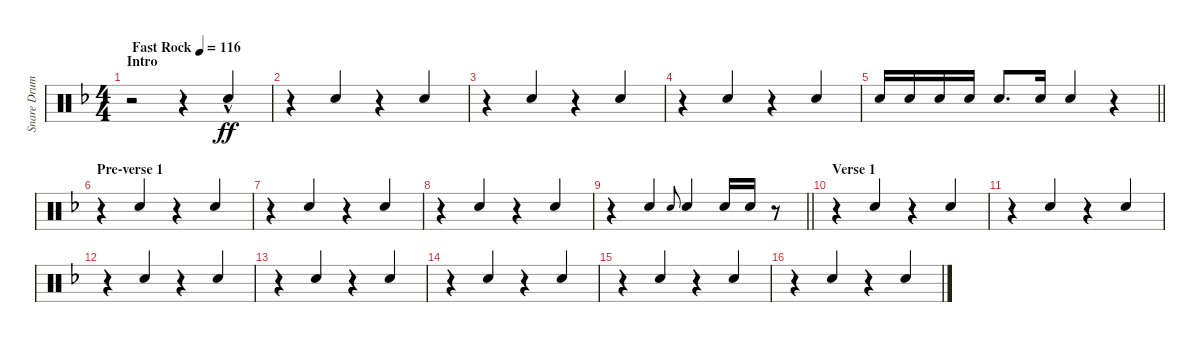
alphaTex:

\track ("Snare Drum" "Snare Drum") {instrument percussion}
\staff {score}
\articulation defaults
\ts (4 4)
\section ("" "Intro")
\tempo (116 "Fast Rock")
\clef neutral
\ks dminor
r.2{dy ff} r.4 "Electric Snare (hit)"{hac}.4{volume 16 beam Up} |
\ks f
r.4{volume 13 beam merge} "Electric Snare (hit)".4{beam Up} r.4{beam merge} "Electric Snare (hit)".4{beam Up} |
r.4{beam merge} "Electric Snare (hit)".4{beam Up} r.4{beam merge} "Electric Snare (hit)".4{beam Up} |
r.4{beam merge} "Electric Snare (hit)".4{beam Up} r.4{beam merge} "Electric Snare (hit)".4{beam Up} |
\barLineRight lightlight "Electric Snare (hit)".16{beam Up} "Electric Snare (hit)".16{beam Up} "Electric Snare (hit)".16{beam Up} "Electric Snare (hit)".16{beam Up} "Electric Snare (hit)".8{d beam Up} "Electric Snare (hit)".16{beam Up} "Electric Snare (hit)".4{beam Up}
r.4 |
\section ("" "Pre-verse 1")
r.4{beam merge} "Electric Snare (hit)".4{beam Up} r.4{beam merge} "Electric Snare (hit)".4{beam Up} |
r.4{beam merge} "Electric Snare (hit)".4{beam Up} r.4{beam merge} "Electric Snare (hit)".4{beam Up} |
r.4{beam merge} "Electric Snare (hit)".4{beam Up} r.4{beam merge} "Electric Snare (hit)".4{beam Up} |
\barLineRight lightlight
r.4{beam merge} "Electric Snare (hit)".4{beam Up} "Electric Snare (hit)".8{gr onbeat} "Electric Snare (hit)".4{beam Up} "Electric Snare (hit)".16{beam Up} "Electric Snare (hit)".16{beam Up} r.8 |
\section ("" "Verse 1")
r.4{beam merge} "Electric Snare (hit)".4{beam Up} r.4{beam merge} "Electric Snare (hit)".4{beam Up} |
r.4{beam merge} "Electric Snare (hit)".4{beam Up} r.4{beam merge} "Electric Snare (hit)".4{beam Up} |
r.4{beam merge} "Electric Snare (hit)".4{beam Up} r.4{beam merge} "Electric Snare (hit)".4{beam Up} |
r.4{beam merge} "Electric Snare (hit)".4{beam Up} r.4{beam merge} "Electric Snare (hit)".4{beam Up} |
r.4{beam merge} "Electric Snare (hit)".4{beam Up} r.4{beam merge} "Electric Snare (hit)".4{beam Up} |
r.4{beam merge} "Electric Snare (hit)".4{beam Up} r.4{beam merge} "Electric Snare (hit)".4{beam Up} |
r.4{beam merge} "Electric Snare (hit)".4{beam Up} r.4{beam merge} "Electric Snare (hit)".4{beam Up}
